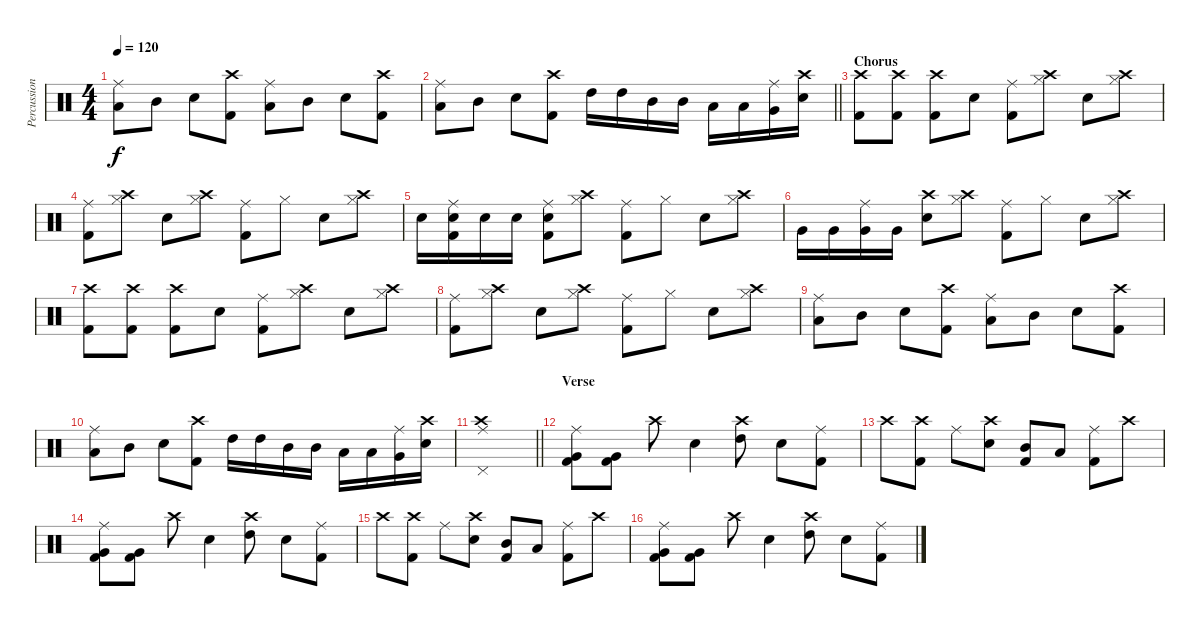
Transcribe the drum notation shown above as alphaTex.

\track ("Percussion" "Percussion") {instrument percussion}
\staff {score}
\articulation defaults
\ts (4 4)
\tempo 120
\clef neutral
\ks c
("Ride (middle)" "Low Tom (hit)").8{dy f} "Mid Tom (hit)".8 "Electric Snare (hit)".8 ("Crash high (hit)" "Kick (hit) 2").8 ("Ride (middle)" "Low Tom (hit)").8 "Mid Tom (hit)".8 "Electric Snare (hit)".8 ("Crash high (hit)" "Kick (hit) 2").8 |
\barLineRight lightlight
("Ride (middle)" "Low Tom (hit)").8 "Mid Tom (hit)".8 "Electric Snare (hit)".8 ("Crash high (hit)" "Kick (hit) 2").8 "High Tom (hit)".16 "High Tom (hit)".16 "Mid Tom (hit)".16 "Mid Tom (hit)".16 "Low Tom (hit)".16 "Low Tom (hit)".16 ("Ride (middle)" "Very Low Tom (hit)").16 ("Crash high (hit)" "Electric Snare (hit)").16 |
\section ("" "Chorus")
("Crash high (hit)" "Kick (hit) 2").8 ("Crash high (hit)" "Kick (hit) 2").8 ("Crash high (hit)" "Kick (hit) 2").8 "Electric Snare (hit)".8 ("Ride (middle)" "Kick (hit) 2").8 ("Crash high (hit)" "Hi-Hat (closed)").8 "Electric Snare (hit)".8 ("Crash high (hit)" "Hi-Hat (closed)").8 |
("Ride (middle)" "Kick (hit) 2").8 ("Crash high (hit)" "Hi-Hat (closed)").8 "Electric Snare (hit)".8 ("Crash high (hit)" "Hi-Hat (closed)").8 ("Ride (middle)" "Kick (hit) 2").8 "Hi-Hat (closed)".8 "Electric Snare (hit)".8 ("Crash high (hit)" "Hi-Hat (closed)").8 |
"Electric Snare (hit)".16 ("Ride (middle)" "Electric Snare (hit)" "Kick (hit) 2").16 "Electric Snare (hit)".16 "Electric Snare (hit)".16 ("Ride (middle)" "Electric Snare (hit)" "Kick (hit) 2").8 ("Crash high (hit)" "Hi-Hat (closed)").8 ("Ride (middle)" "Kick (hit) 2").8 "Hi-Hat (closed)".8 "Electric Snare (hit)".8 ("Crash high (hit)" "Hi-Hat (closed)").8 |
"Very Low Tom (hit)".16 "Very Low Tom (hit)".16 ("Ride (middle)" "Very Low Tom (hit)").16 "Very Low Tom (hit)".16 ("Crash high (hit)" "Electric Snare (hit)").8 ("Crash high (hit)" "Hi-Hat (closed)").8 ("Ride (middle)" "Kick (hit) 2").8 "Hi-Hat (closed)".8 "Electric Snare (hit)".8 ("Crash high (hit)" "Hi-Hat (closed)").8 |
("Crash high (hit)" "Kick (hit) 2").8 ("Crash high (hit)" "Kick (hit) 2").8 ("Crash high (hit)" "Kick (hit) 2").8 "Electric Snare (hit)".8 ("Ride (middle)" "Kick (hit) 2").8 ("Crash high (hit)" "Hi-Hat (closed)").8 "Electric Snare (hit)".8 ("Crash high (hit)" "Hi-Hat (closed)").8 |
("Ride (middle)" "Kick (hit) 2").8 ("Crash high (hit)" "Hi-Hat (closed)").8 "Electric Snare (hit)".8 ("Crash high (hit)" "Hi-Hat (closed)").8 ("Ride (middle)" "Kick (hit) 2").8 "Hi-Hat (closed)".8 "Electric Snare (hit)".8 ("Crash high (hit)" "Hi-Hat (closed)").8 |
("Ride (middle)" "Low Tom (hit)").8 "Mid Tom (hit)".8 "Electric Snare (hit)".8 ("Crash high (hit)" "Kick (hit) 2").8 ("Ride (middle)" "Low Tom (hit)").8 "Mid Tom (hit)".8 "Electric Snare (hit)".8 ("Crash high (hit)" "Kick (hit) 2").8 |
("Ride (middle)" "Low Tom (hit)").8 "Mid Tom (hit)".8 "Electric Snare (hit)".8 ("Crash high (hit)" "Kick (hit) 2").8 "High Tom (hit)".16 "High Tom (hit)".16 "Mid Tom (hit)".16 "Mid Tom (hit)".16 "Low Tom (hit)".16 "Low Tom (hit)".16 ("Ride (middle)" "Very Low Tom (hit)").16 ("Crash high (hit)" "Electric Snare (hit)").16 |
\barLineRight lightlight
("Crash high (hit)" "Ride (middle)" "Pedal Hi-Hat (hit)").1 |
\section ("" "Verse")
("Ride (middle)" "Very Low Tom (hit)" "Kick (hit) 2").8 ("Very Low Tom (hit)" "Kick (hit) 2").8 "Crash high (hit)".8 "Electric Snare (hit)".4 ("Crash high (hit)" "High Tom (hit)").8 "Electric Snare (hit)".8 ("Ride (middle)" "Kick (hit) 2").8 |
"Crash high (hit)".8 ("Crash high (hit)" "Kick (hit) 2").8 "Ride (middle)".8 ("Crash high (hit)" "Electric Snare (hit)").8 ("Mid Tom (hit)" "Kick (hit) 2").8 "Low Tom (hit)".8 ("Ride (middle)" "Kick (hit) 2").8 "Crash high (hit)".8 |
("Ride (middle)" "Very Low Tom (hit)" "Kick (hit) 2").8 ("Very Low Tom (hit)" "Kick (hit) 2").8 "Crash high (hit)".8 "Electric Snare (hit)".4 ("Crash high (hit)" "High Tom (hit)").8 "Electric Snare (hit)".8 ("Ride (middle)" "Kick (hit) 2").8 |
"Crash high (hit)".8 ("Crash high (hit)" "Kick (hit) 2").8 "Ride (middle)".8 ("Crash high (hit)" "Electric Snare (hit)").8 ("Mid Tom (hit)" "Kick (hit) 2").8 "Low Tom (hit)".8 ("Ride (middle)" "Kick (hit) 2").8 "Crash high (hit)".8 |
("Ride (middle)" "Very Low Tom (hit)" "Kick (hit) 2").8 ("Very Low Tom (hit)" "Kick (hit) 2").8 "Crash high (hit)".8 "Electric Snare (hit)".4 ("Crash high (hit)" "High Tom (hit)").8 "Electric Snare (hit)".8 ("Ride (middle)" "Kick (hit) 2").8
